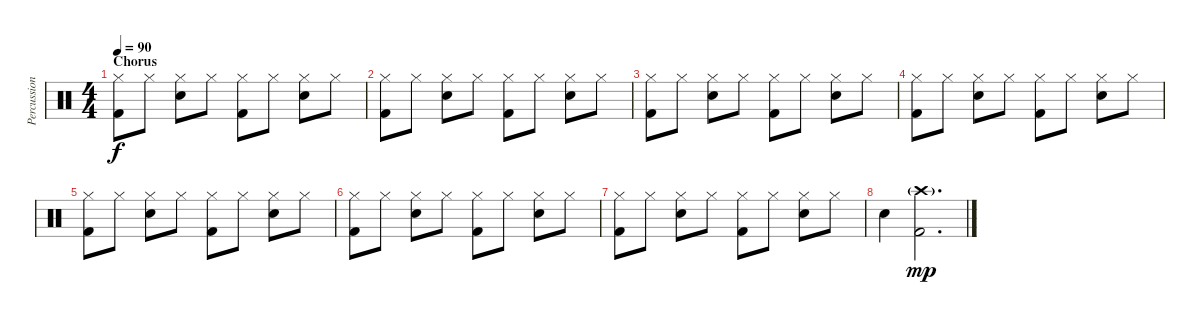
\track ("Percussion" "Percussion") {instrument percussion}
\staff {score}
\articulation defaults
\ts (4 4)
\section ("" "Chorus")
\tempo 90
\clef neutral
\ks c
("Hi-Hat (closed)" "Kick (hit) 2").8{dy f} "Hi-Hat (closed)".8 ("Hi-Hat (closed)" "Snare (hit) 2").8 "Hi-Hat (closed)".8 ("Hi-Hat (closed)" "Kick (hit) 2").8 "Hi-Hat (closed)".8 ("Hi-Hat (closed)" "Snare (hit) 2").8 "Hi-Hat (closed)".8 |
("Hi-Hat (closed)" "Kick (hit) 2").8 "Hi-Hat (closed)".8 ("Hi-Hat (closed)" "Snare (hit) 2").8 "Hi-Hat (closed)".8 ("Hi-Hat (closed)" "Kick (hit) 2").8 "Hi-Hat (closed)".8 ("Hi-Hat (closed)" "Snare (hit) 2").8 "Hi-Hat (closed)".8 |
("Hi-Hat (closed)" "Kick (hit) 2").8 "Hi-Hat (closed)".8 ("Hi-Hat (closed)" "Snare (hit) 2").8 "Hi-Hat (closed)".8 ("Hi-Hat (closed)" "Kick (hit) 2").8 "Hi-Hat (closed)".8 ("Hi-Hat (closed)" "Snare (hit) 2").8 "Hi-Hat (closed)".8 |
("Hi-Hat (closed)" "Kick (hit) 2").8 "Hi-Hat (closed)".8 ("Hi-Hat (closed)" "Snare (hit) 2").8 "Hi-Hat (closed)".8 ("Hi-Hat (closed)" "Kick (hit) 2").8 "Hi-Hat (closed)".8 ("Hi-Hat (closed)" "Snare (hit) 2").8 "Hi-Hat (closed)".8 |
("Hi-Hat (closed)" "Kick (hit) 2").8 "Hi-Hat (closed)".8 ("Hi-Hat (closed)" "Snare (hit) 2").8 "Hi-Hat (closed)".8 ("Hi-Hat (closed)" "Kick (hit) 2").8 "Hi-Hat (closed)".8 ("Hi-Hat (closed)" "Snare (hit) 2").8 "Hi-Hat (closed)".8 |
("Hi-Hat (closed)" "Kick (hit) 2").8 "Hi-Hat (closed)".8 ("Hi-Hat (closed)" "Snare (hit) 2").8 "Hi-Hat (closed)".8 ("Hi-Hat (closed)" "Kick (hit) 2").8 "Hi-Hat (closed)".8 ("Hi-Hat (closed)" "Snare (hit) 2").8 "Hi-Hat (closed)".8 |
("Hi-Hat (closed)" "Kick (hit) 2").8 "Hi-Hat (closed)".8 ("Hi-Hat (closed)" "Snare (hit) 2").8 "Hi-Hat (closed)".8 ("Hi-Hat (closed)" "Kick (hit) 2").8 "Hi-Hat (closed)".8 ("Hi-Hat (closed)" "Snare (hit) 2").8 "Hi-Hat (closed)".8 |
"Snare (hit) 2".4 ("Crash high (hit)"{g} "Kick (hit) 2").2{d dy mp}
